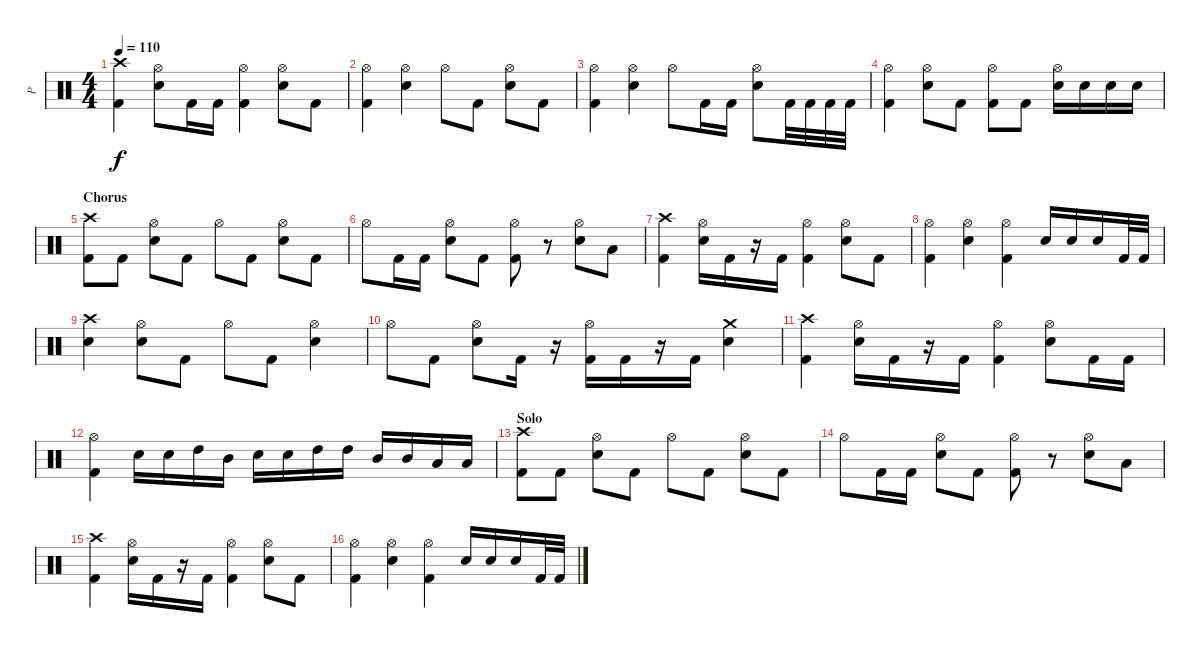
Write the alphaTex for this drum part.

\track ("P" "P") {instrument percussion}
\staff {score}
\articulation defaults
\ts (4 4)
\tempo 110
\clef neutral
\ks c
("Crash high (hit)" "Kick (hit) 2").4{dy f} ("Hi-Hat (open)" "Electric Snare (hit)").8 "Kick (hit) 2".16 "Kick (hit) 2".16 ("Hi-Hat (open)" "Kick (hit) 2").4 ("Hi-Hat (open)" "Electric Snare (hit)").8 "Kick (hit) 2".8 |
("Hi-Hat (open)" "Kick (hit) 2").4 ("Hi-Hat (open)" "Electric Snare (hit)").4 "Hi-Hat (open)".8 "Kick (hit) 2".8 ("Hi-Hat (open)" "Electric Snare (hit)").8 "Kick (hit) 2".8 |
("Hi-Hat (open)" "Kick (hit) 2").4 ("Hi-Hat (open)" "Electric Snare (hit)").4 "Hi-Hat (open)".8 "Kick (hit) 2".16 "Kick (hit) 2".16 ("Hi-Hat (open)" "Electric Snare (hit)").8 "Kick (hit) 2".32 "Kick (hit) 2".32 "Kick (hit) 2".32 "Kick (hit) 2".32 |
("Hi-Hat (open)" "Kick (hit) 2").4 ("Hi-Hat (open)" "Electric Snare (hit)").8 "Kick (hit) 2".8 ("Hi-Hat (open)" "Kick (hit) 2").8 "Kick (hit) 2".8 ("Hi-Hat (open)" "Electric Snare (hit)").16 "Electric Snare (hit)".16 "Electric Snare (hit)".16 "Electric Snare (hit)".16 |
\section ("" "Chorus")
("Crash high (hit)" "Kick (hit) 2").8 "Kick (hit) 2".8 ("Hi-Hat (open)" "Electric Snare (hit)").8 "Kick (hit) 2".8 "Hi-Hat (open)".8 "Kick (hit) 2".8 ("Hi-Hat (open)" "Electric Snare (hit)").8 "Kick (hit) 2".8 |
"Hi-Hat (open)".8 "Kick (hit) 2".16 "Kick (hit) 2".16 ("Hi-Hat (open)" "Electric Snare (hit)").8 "Kick (hit) 2".8 ("Hi-Hat (open)" "Kick (hit) 2").8 r.8 ("Hi-Hat (open)" "Electric Snare (hit)").8 "Low Tom (hit)".8 |
("Crash high (hit)" "Kick (hit) 2").4 ("Hi-Hat (open)" "Electric Snare (hit)").16 "Kick (hit) 2".16 r.16 "Kick (hit) 2".16 ("Hi-Hat (open)" "Kick (hit) 2").4 ("Hi-Hat (open)" "Electric Snare (hit)").8 "Kick (hit) 2".8 |
("Hi-Hat (open)" "Kick (hit) 2").4 ("Hi-Hat (open)" "Electric Snare (hit)").4 ("Hi-Hat (open)" "Kick (hit) 2").4 "Electric Snare (hit)".16 "Electric Snare (hit)".16 "Electric Snare (hit)".16 "Kick (hit) 2".32 "Kick (hit) 2".32 |
("Crash high (hit)" "Electric Snare (hit)").4 ("Hi-Hat (open)" "Electric Snare (hit)").8 "Kick (hit) 2".8 "Hi-Hat (open)".8 "Kick (hit) 2".8 ("Hi-Hat (open)" "Electric Snare (hit)").4 |
"Hi-Hat (open)".8 "Kick (hit) 2".8 ("Hi-Hat (open)" "Electric Snare (hit)").8 "Kick (hit) 2".16 r.16 ("Hi-Hat (open)" "Kick (hit) 2").16 "Kick (hit) 2".16 r.16 "Kick (hit) 2".16 ("Crash medium (hit)" "Electric Snare (hit)").4 |
("Crash high (hit)" "Kick (hit) 2").4 ("Hi-Hat (open)" "Electric Snare (hit)").16 "Kick (hit) 2".16 r.16 "Kick (hit) 2".16 ("Hi-Hat (open)" "Kick (hit) 2").4 ("Hi-Hat (open)" "Electric Snare (hit)").8 "Kick (hit) 2".16 "Kick (hit) 2".16 |
("Hi-Hat (open)" "Kick (hit) 2").4 "Electric Snare (hit)".16 "Electric Snare (hit)".16 "High Tom (hit)".16 "Mid Tom (hit)".16 "Electric Snare (hit)".16 "Electric Snare (hit)".16 "High Tom (hit)".16 "High Tom (hit)".16 "Mid Tom (hit)".16 "Mid Tom (hit)".16 "Low Tom (hit)".16 "Low Tom (hit)".16 |
\section ("" "Solo")
("Crash high (hit)" "Kick (hit) 2").8 "Kick (hit) 2".8 ("Hi-Hat (open)" "Electric Snare (hit)").8 "Kick (hit) 2".8 "Hi-Hat (open)".8 "Kick (hit) 2".8 ("Hi-Hat (open)" "Electric Snare (hit)").8 "Kick (hit) 2".8 |
"Hi-Hat (open)".8 "Kick (hit) 2".16 "Kick (hit) 2".16 ("Hi-Hat (open)" "Electric Snare (hit)").8 "Kick (hit) 2".8 ("Hi-Hat (open)" "Kick (hit) 2").8 r.8 ("Hi-Hat (open)" "Electric Snare (hit)").8 "Low Tom (hit)".8 |
("Crash high (hit)" "Kick (hit) 2").4 ("Hi-Hat (open)" "Electric Snare (hit)").16 "Kick (hit) 2".16 r.16 "Kick (hit) 2".16 ("Hi-Hat (open)" "Kick (hit) 2").4 ("Hi-Hat (open)" "Electric Snare (hit)").8 "Kick (hit) 2".8 |
("Hi-Hat (open)" "Kick (hit) 2").4 ("Hi-Hat (open)" "Electric Snare (hit)").4 ("Hi-Hat (open)" "Kick (hit) 2").4 "Electric Snare (hit)".16 "Electric Snare (hit)".16 "Electric Snare (hit)".16 "Kick (hit) 2".32 "Kick (hit) 2".32
